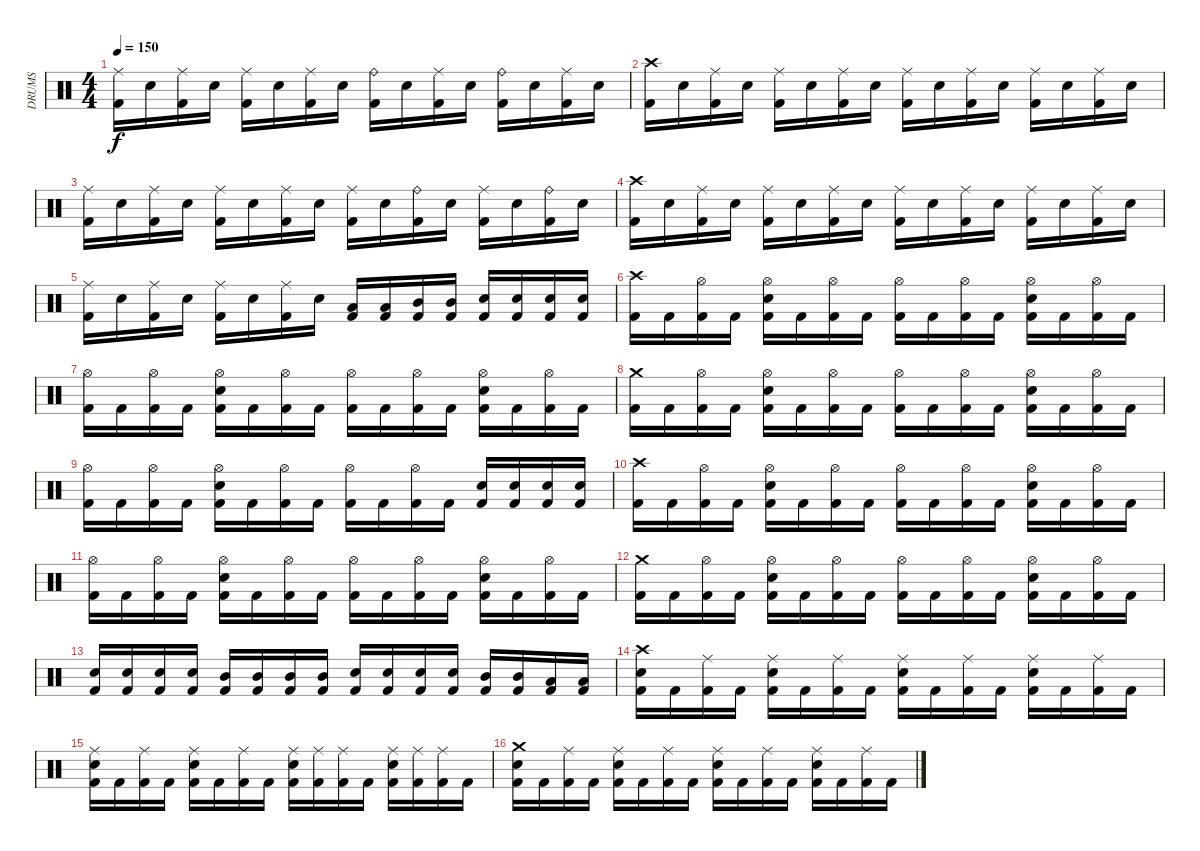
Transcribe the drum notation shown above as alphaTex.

\track ("DRUMS" "DRUMS") {instrument percussion}
\staff {score}
\articulation defaults
\ts (4 4)
\tempo 150
\clef neutral
\ks c
("Kick (hit) 2" "Ride (middle)").16{dy f} "Snare (hit) 2".16 ("Kick (hit) 2" "Ride (middle)").16 "Snare (hit) 2".16 ("Kick (hit) 2" "Ride (middle)").16 "Snare (hit) 2".16 ("Kick (hit) 2" "Ride (middle)").16 "Snare (hit) 2".16 ("Kick (hit) 2" "Ride (bell)").16 "Snare (hit) 2".16 ("Kick (hit) 2" "Ride (middle)").16 "Snare (hit) 2".16 ("Kick (hit) 2" "Ride (bell)").16 "Snare (hit) 2".16 ("Kick (hit) 2" "Ride (middle)").16 "Snare (hit) 2".16 |
("Kick (hit) 2" "Crash high (hit)").16 "Snare (hit) 2".16 ("Kick (hit) 2" "Ride (middle)").16 "Snare (hit) 2".16 ("Kick (hit) 2" "Ride (middle)").16 "Snare (hit) 2".16 ("Kick (hit) 2" "Ride (middle)").16 "Snare (hit) 2".16 ("Kick (hit) 2" "Ride (middle)").16 "Snare (hit) 2".16 ("Kick (hit) 2" "Ride (middle)").16 "Snare (hit) 2".16 ("Kick (hit) 2" "Ride (middle)").16 "Snare (hit) 2".16 ("Kick (hit) 2" "Ride (middle)").16 "Snare (hit) 2".16 |
("Kick (hit) 2" "Ride (middle)").16 "Snare (hit) 2".16 ("Kick (hit) 2" "Ride (middle)").16 "Snare (hit) 2".16 ("Kick (hit) 2" "Ride (middle)").16 "Snare (hit) 2".16 ("Kick (hit) 2" "Ride (middle)").16 "Snare (hit) 2".16 ("Kick (hit) 2" "Ride (middle)").16 "Snare (hit) 2".16 ("Kick (hit) 2" "Ride (bell)").16 "Snare (hit) 2".16 ("Kick (hit) 2" "Ride (middle)").16 "Snare (hit) 2".16 ("Kick (hit) 2" "Ride (bell)").16 "Snare (hit) 2".16 |
("Kick (hit) 2" "Crash high (hit)").16 "Snare (hit) 2".16 ("Kick (hit) 2" "Ride (middle)").16 "Snare (hit) 2".16 ("Kick (hit) 2" "Ride (middle)").16 "Snare (hit) 2".16 ("Kick (hit) 2" "Ride (middle)").16 "Snare (hit) 2".16 ("Kick (hit) 2" "Ride (middle)").16 "Snare (hit) 2".16 ("Kick (hit) 2" "Ride (middle)").16 "Snare (hit) 2".16 ("Kick (hit) 2" "Ride (middle)").16 "Snare (hit) 2".16 ("Kick (hit) 2" "Ride (middle)").16 "Snare (hit) 2".16 |
("Kick (hit) 2" "Ride (middle)").16 "Snare (hit) 2".16 ("Kick (hit) 2" "Ride (middle)").16 "Snare (hit) 2".16 ("Kick (hit) 2" "Ride (middle)").16 "Snare (hit) 2".16 ("Kick (hit) 2" "Ride (middle)").16 "Snare (hit) 2".16 ("Kick (hit) 2" "Low Tom (hit)").16 ("Kick (hit) 2" "Low Tom (hit)").16 ("Kick (hit) 2" "Mid Tom (hit)").16 ("Kick (hit) 2" "Mid Tom (hit)").16 ("Kick (hit) 2" "Snare (hit) 2").16 ("Kick (hit) 2" "Snare (hit) 2").16 ("Kick (hit) 2" "Snare (hit) 2").16 ("Kick (hit) 2" "Snare (hit) 2").16 |
("Kick (hit) 2" "Crash high (hit)").16 "Kick (hit) 2".16 ("Kick (hit) 2" "Hi-Hat (open)").16 "Kick (hit) 2".16 ("Kick (hit) 2" "Snare (hit) 2" "Hi-Hat (open)").16 "Kick (hit) 2".16 ("Kick (hit) 2" "Hi-Hat (open)").16 "Kick (hit) 2".16 ("Kick (hit) 2" "Hi-Hat (open)").16 "Kick (hit) 2".16 ("Kick (hit) 2" "Hi-Hat (open)").16 "Kick (hit) 2".16 ("Kick (hit) 2" "Snare (hit) 2" "Hi-Hat (open)").16 "Kick (hit) 2".16 ("Kick (hit) 2" "Hi-Hat (open)").16 "Kick (hit) 2".16 |
("Kick (hit) 2" "Hi-Hat (open)").16 "Kick (hit) 2".16 ("Kick (hit) 2" "Hi-Hat (open)").16 "Kick (hit) 2".16 ("Kick (hit) 2" "Snare (hit) 2" "Hi-Hat (open)").16 "Kick (hit) 2".16 ("Kick (hit) 2" "Hi-Hat (open)").16 "Kick (hit) 2".16 ("Kick (hit) 2" "Hi-Hat (open)").16 "Kick (hit) 2".16 ("Kick (hit) 2" "Hi-Hat (open)").16 "Kick (hit) 2".16 ("Kick (hit) 2" "Snare (hit) 2" "Hi-Hat (open)").16 "Kick (hit) 2".16 ("Kick (hit) 2" "Hi-Hat (open)").16 "Kick (hit) 2".16 |
("Kick (hit) 2" "Crash medium (hit)").16 "Kick (hit) 2".16 ("Kick (hit) 2" "Hi-Hat (open)").16 "Kick (hit) 2".16 ("Kick (hit) 2" "Snare (hit) 2" "Hi-Hat (open)").16 "Kick (hit) 2".16 ("Kick (hit) 2" "Hi-Hat (open)").16 "Kick (hit) 2".16 ("Kick (hit) 2" "Hi-Hat (open)").16 "Kick (hit) 2".16 ("Kick (hit) 2" "Hi-Hat (open)").16 "Kick (hit) 2".16 ("Kick (hit) 2" "Snare (hit) 2" "Hi-Hat (open)").16 "Kick (hit) 2".16 ("Kick (hit) 2" "Hi-Hat (open)").16 "Kick (hit) 2".16 |
("Kick (hit) 2" "Hi-Hat (open)").16 "Kick (hit) 2".16 ("Kick (hit) 2" "Hi-Hat (open)").16 "Kick (hit) 2".16 ("Kick (hit) 2" "Snare (hit) 2" "Hi-Hat (open)").16 "Kick (hit) 2".16 ("Kick (hit) 2" "Hi-Hat (open)").16 "Kick (hit) 2".16 ("Kick (hit) 2" "Hi-Hat (open)").16 "Kick (hit) 2".16 ("Kick (hit) 2" "Hi-Hat (open)").16 "Kick (hit) 2".16 ("Kick (hit) 2" "Snare (hit) 2").16 ("Kick (hit) 2" "Snare (hit) 2").16 ("Kick (hit) 2" "Snare (hit) 2").16 ("Kick (hit) 2" "Snare (hit) 2").16 |
("Kick (hit) 2" "Crash high (hit)").16 "Kick (hit) 2".16 ("Kick (hit) 2" "Hi-Hat (open)").16 "Kick (hit) 2".16 ("Kick (hit) 2" "Snare (hit) 2" "Hi-Hat (open)").16 "Kick (hit) 2".16 ("Kick (hit) 2" "Hi-Hat (open)").16 "Kick (hit) 2".16 ("Kick (hit) 2" "Hi-Hat (open)").16 "Kick (hit) 2".16 ("Kick (hit) 2" "Hi-Hat (open)").16 "Kick (hit) 2".16 ("Kick (hit) 2" "Snare (hit) 2" "Hi-Hat (open)").16 "Kick (hit) 2".16 ("Kick (hit) 2" "Hi-Hat (open)").16 "Kick (hit) 2".16 |
("Kick (hit) 2" "Hi-Hat (open)").16 "Kick (hit) 2".16 ("Kick (hit) 2" "Hi-Hat (open)").16 "Kick (hit) 2".16 ("Kick (hit) 2" "Snare (hit) 2" "Hi-Hat (open)").16 "Kick (hit) 2".16 ("Kick (hit) 2" "Hi-Hat (open)").16 "Kick (hit) 2".16 ("Kick (hit) 2" "Hi-Hat (open)").16 "Kick (hit) 2".16 ("Kick (hit) 2" "Hi-Hat (open)").16 "Kick (hit) 2".16 ("Kick (hit) 2" "Snare (hit) 2" "Hi-Hat (open)").16 "Kick (hit) 2".16 ("Kick (hit) 2" "Hi-Hat (open)").16 "Kick (hit) 2".16 |
("Kick (hit) 2" "Crash medium (hit)").16 "Kick (hit) 2".16 ("Kick (hit) 2" "Hi-Hat (open)").16 "Kick (hit) 2".16 ("Kick (hit) 2" "Snare (hit) 2" "Hi-Hat (open)").16 "Kick (hit) 2".16 ("Kick (hit) 2" "Hi-Hat (open)").16 "Kick (hit) 2".16 ("Kick (hit) 2" "Hi-Hat (open)").16 "Kick (hit) 2".16 ("Kick (hit) 2" "Hi-Hat (open)").16 "Kick (hit) 2".16 ("Kick (hit) 2" "Snare (hit) 2" "Hi-Hat (open)").16 "Kick (hit) 2".16 ("Kick (hit) 2" "Hi-Hat (open)").16 "Kick (hit) 2".16 |
("Kick (hit) 2" "Snare (hit) 2").16 ("Kick (hit) 2" "Snare (hit) 2").16 ("Kick (hit) 2" "Snare (hit) 2").16 ("Kick (hit) 2" "Snare (hit) 2").16 ("Kick (hit) 2" "Mid Tom (hit)").16 ("Kick (hit) 2" "Mid Tom (hit)").16 ("Kick (hit) 2" "Mid Tom (hit)").16 ("Kick (hit) 2" "Mid Tom (hit)").16 ("Kick (hit) 2" "Snare (hit) 2").16 ("Kick (hit) 2" "Snare (hit) 2").16 ("Kick (hit) 2" "Snare (hit) 2").16 ("Kick (hit) 2" "Snare (hit) 2").16 ("Kick (hit) 2" "Mid Tom (hit)").16 ("Kick (hit) 2" "Mid Tom (hit)").16 ("Kick (hit) 2" "Low Tom (hit)").16 ("Kick (hit) 2" "Low Tom (hit)").16 |
("Kick (hit) 2" "Snare (hit) 2" "Crash high (hit)").16 "Kick (hit) 2".16 ("Kick (hit) 2" "Ride (middle)").16 "Kick (hit) 2".16 ("Kick (hit) 2" "Snare (hit) 2" "Ride (middle)").16 "Kick (hit) 2".16 ("Kick (hit) 2" "Ride (middle)").16 "Kick (hit) 2".16 ("Kick (hit) 2" "Snare (hit) 2" "Ride (middle)").16 "Kick (hit) 2".16 ("Kick (hit) 2" "Ride (middle)").16 "Kick (hit) 2".16 ("Kick (hit) 2" "Snare (hit) 2" "Ride (middle)").16 "Kick (hit) 2".16 ("Kick (hit) 2" "Ride (middle)").16 "Kick (hit) 2".16 |
("Kick (hit) 2" "Snare (hit) 2" "Ride (middle)").16 "Kick (hit) 2".16 ("Kick (hit) 2" "Ride (middle)").16 "Kick (hit) 2".16 ("Kick (hit) 2" "Snare (hit) 2" "Ride (middle)").16 "Kick (hit) 2".16 ("Kick (hit) 2" "Ride (middle)").16 "Kick (hit) 2".16 ("Kick (hit) 2" "Snare (hit) 2" "Ride (middle)").16 ("Kick (hit) 2" "Ride (middle)").16 ("Kick (hit) 2" "Ride (middle)").16 "Kick (hit) 2".16 ("Kick (hit) 2" "Snare (hit) 2" "Ride (middle)").16 ("Kick (hit) 2" "Ride (middle)").16 ("Kick (hit) 2" "Ride (middle)").16 "Kick (hit) 2".16 |
("Kick (hit) 2" "Snare (hit) 2" "Crash medium (hit)").16 "Kick (hit) 2".16 ("Kick (hit) 2" "Ride (middle)").16 "Kick (hit) 2".16 ("Kick (hit) 2" "Snare (hit) 2" "Ride (middle)").16 "Kick (hit) 2".16 ("Kick (hit) 2" "Ride (middle)").16 "Kick (hit) 2".16 ("Kick (hit) 2" "Snare (hit) 2" "Ride (middle)").16 "Kick (hit) 2".16 ("Kick (hit) 2" "Ride (middle)").16 "Kick (hit) 2".16 ("Kick (hit) 2" "Snare (hit) 2" "Ride (middle)").16 "Kick (hit) 2".16 ("Kick (hit) 2" "Ride (middle)").16 "Kick (hit) 2".16
